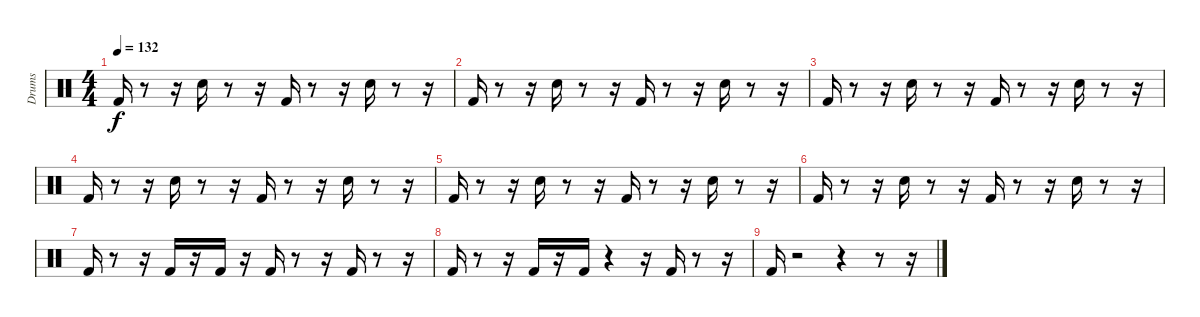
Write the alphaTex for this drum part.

\track ("Drums" "Drums") {instrument percussion}
\staff {score}
\articulation defaults
\ts (4 4)
\tempo 132
\clef neutral
\ks c "Kick (hit) 2".16{dy f}
r.8 r.16 "Snare (hit) 2".16 r.8 r.16 "Kick (hit) 2".16 r.8 r.16 "Snare (hit) 2".16 r.8 r.16 |
"Kick (hit) 2".16 r.8 r.16 "Snare (hit) 2".16 r.8 r.16 "Kick (hit) 2".16 r.8 r.16 "Snare (hit) 2".16 r.8 r.16 |
"Kick (hit) 2".16 r.8 r.16 "Snare (hit) 2".16 r.8 r.16 "Kick (hit) 2".16 r.8 r.16 "Snare (hit) 2".16 r.8 r.16 |
"Kick (hit) 2".16 r.8 r.16 "Snare (hit) 2".16 r.8 r.16 "Kick (hit) 2".16 r.8 r.16 "Snare (hit) 2".16 r.8 r.16 |
"Kick (hit) 2".16 r.8 r.16 "Snare (hit) 2".16 r.8 r.16 "Kick (hit) 2".16 r.8 r.16 "Snare (hit) 2".16 r.8 r.16 |
"Kick (hit) 2".16 r.8 r.16 "Snare (hit) 2".16 r.8 r.16 "Kick (hit) 2".16 r.8 r.16 "Snare (hit) 2".16 r.8 r.16 |
"Kick (hit) 2".16 r.8 r.16 "Kick (hit) 2".16 r.16 "Kick (hit) 2".16 r.16 "Kick (hit) 2".16 r.8 r.16 "Kick (hit) 2".16 r.8 r.16 |
"Kick (hit) 2".16 r.8 r.16 "Kick (hit) 2".16 r.16 "Kick (hit) 2".16 r.4 r.16 "Kick (hit) 2".16 r.8 r.16 |
"Kick (hit) 2".16 r.2 r.4 r.8 r.16
